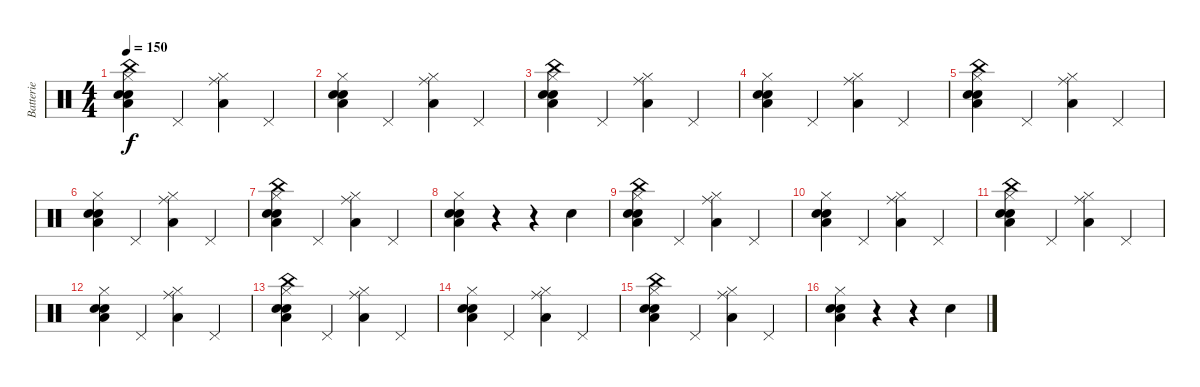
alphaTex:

\track ("Batterie" "Batterie") {instrument percussion}
\staff {score}
\articulation defaults
\ts (4 4)
\tempo 150
\clef neutral
\ks c
("Electric Snare (hit)" "Low Tom (hit)" "Hi-Hat (closed)" "Snare (hit) 2" "China (hit)").4{dy f} "Pedal Hi-Hat (hit)".4 ("Low Tom (hit)" "Hi-Hat (closed)" "Ride (middle)").4 "Pedal Hi-Hat (hit)".4 |
("Electric Snare (hit)" "Low Tom (hit)" "Hi-Hat (closed)" "Snare (hit) 2").4 "Pedal Hi-Hat (hit)".4 ("Low Tom (hit)" "Hi-Hat (closed)" "Ride (middle)").4 "Pedal Hi-Hat (hit)".4 |
("Electric Snare (hit)" "Low Tom (hit)" "Hi-Hat (closed)" "Snare (hit) 2" "China (hit)").4 "Pedal Hi-Hat (hit)".4 ("Low Tom (hit)" "Hi-Hat (closed)" "Ride (middle)").4 "Pedal Hi-Hat (hit)".4 |
("Electric Snare (hit)" "Low Tom (hit)" "Hi-Hat (closed)" "Snare (hit) 2").4 "Pedal Hi-Hat (hit)".4 ("Low Tom (hit)" "Hi-Hat (closed)" "Ride (middle)").4 "Pedal Hi-Hat (hit)".4 |
("Electric Snare (hit)" "Low Tom (hit)" "Hi-Hat (closed)" "Snare (hit) 2" "China (hit)").4 "Pedal Hi-Hat (hit)".4 ("Low Tom (hit)" "Hi-Hat (closed)" "Ride (middle)").4 "Pedal Hi-Hat (hit)".4 |
("Electric Snare (hit)" "Low Tom (hit)" "Hi-Hat (closed)" "Snare (hit) 2").4 "Pedal Hi-Hat (hit)".4 ("Low Tom (hit)" "Hi-Hat (closed)" "Ride (middle)").4 "Pedal Hi-Hat (hit)".4 |
("Electric Snare (hit)" "Low Tom (hit)" "Hi-Hat (closed)" "Snare (hit) 2" "China (hit)").4 "Pedal Hi-Hat (hit)".4 ("Low Tom (hit)" "Hi-Hat (closed)" "Ride (middle)").4 "Pedal Hi-Hat (hit)".4 |
("Electric Snare (hit)" "Low Tom (hit)" "Hi-Hat (closed)" "Snare (hit) 2").4 r.4 r.4 "Snare (hit) 2".4 |
("Electric Snare (hit)" "Low Tom (hit)" "Hi-Hat (closed)" "Snare (hit) 2" "China (hit)").4 "Pedal Hi-Hat (hit)".4 ("Low Tom (hit)" "Hi-Hat (closed)" "Ride (middle)").4 "Pedal Hi-Hat (hit)".4 |
("Electric Snare (hit)" "Low Tom (hit)" "Hi-Hat (closed)" "Snare (hit) 2").4 "Pedal Hi-Hat (hit)".4 ("Low Tom (hit)" "Hi-Hat (closed)" "Ride (middle)").4 "Pedal Hi-Hat (hit)".4 |
("Electric Snare (hit)" "Low Tom (hit)" "Hi-Hat (closed)" "Snare (hit) 2" "China (hit)").4 "Pedal Hi-Hat (hit)".4 ("Low Tom (hit)" "Hi-Hat (closed)" "Ride (middle)").4 "Pedal Hi-Hat (hit)".4 |
("Electric Snare (hit)" "Low Tom (hit)" "Hi-Hat (closed)" "Snare (hit) 2").4 "Pedal Hi-Hat (hit)".4 ("Low Tom (hit)" "Hi-Hat (closed)" "Ride (middle)").4 "Pedal Hi-Hat (hit)".4 |
("Electric Snare (hit)" "Low Tom (hit)" "Hi-Hat (closed)" "Snare (hit) 2" "China (hit)").4 "Pedal Hi-Hat (hit)".4 ("Low Tom (hit)" "Hi-Hat (closed)" "Ride (middle)").4 "Pedal Hi-Hat (hit)".4 |
("Electric Snare (hit)" "Low Tom (hit)" "Hi-Hat (closed)" "Snare (hit) 2").4 "Pedal Hi-Hat (hit)".4 ("Low Tom (hit)" "Hi-Hat (closed)" "Ride (middle)").4 "Pedal Hi-Hat (hit)".4 |
("Electric Snare (hit)" "Low Tom (hit)" "Hi-Hat (closed)" "Snare (hit) 2" "China (hit)").4 "Pedal Hi-Hat (hit)".4 ("Low Tom (hit)" "Hi-Hat (closed)" "Ride (middle)").4 "Pedal Hi-Hat (hit)".4 |
("Electric Snare (hit)" "Low Tom (hit)" "Hi-Hat (closed)" "Snare (hit) 2").4 r.4 r.4 "Snare (hit) 2".4
